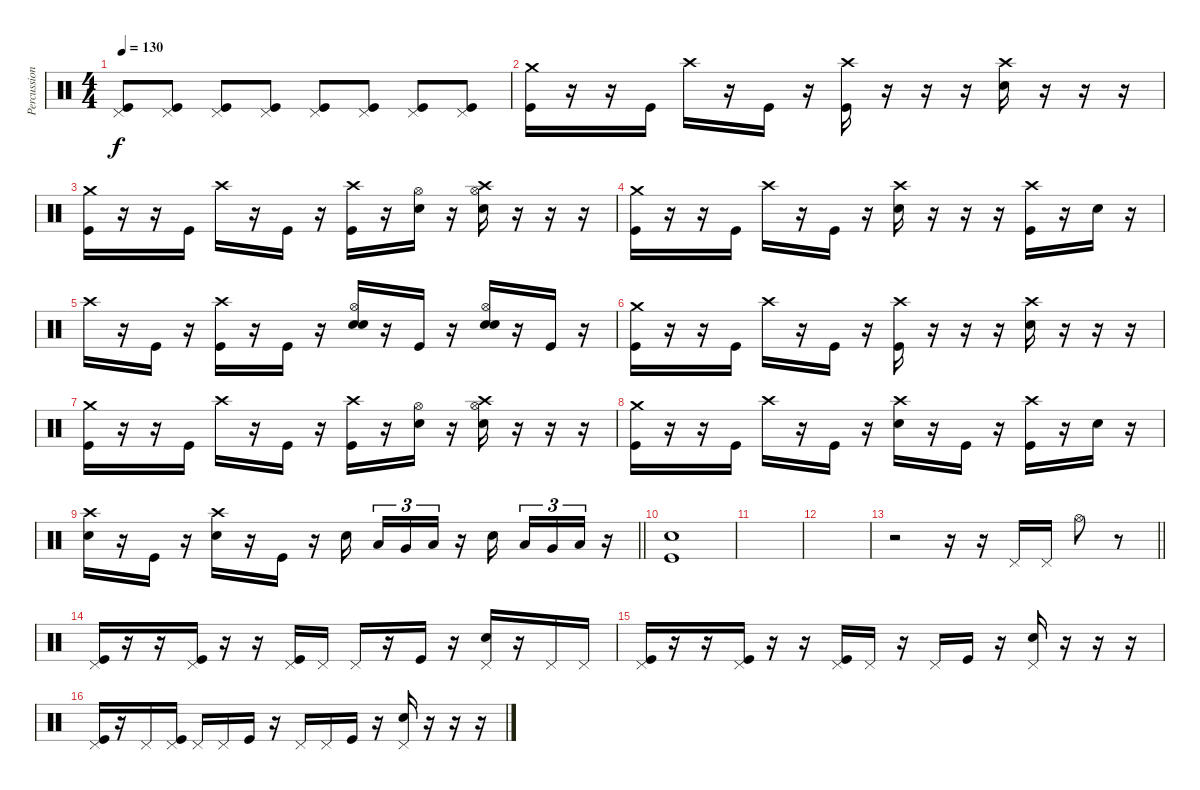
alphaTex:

\track ("Percussion" "Percussion") {instrument percussion}
\staff {score}
\articulation defaults
\ts (4 4)
\tempo 130
\clef neutral
\ks c
("Pedal Hi-Hat (hit)" "Kick (hit)").8{dy f} ("Pedal Hi-Hat (hit)" "Kick (hit)").8 ("Pedal Hi-Hat (hit)" "Kick (hit)").8 ("Pedal Hi-Hat (hit)" "Kick (hit)").8 ("Pedal Hi-Hat (hit)" "Kick (hit)").8 ("Pedal Hi-Hat (hit)" "Kick (hit)").8 ("Pedal Hi-Hat (hit)" "Kick (hit)").8 ("Pedal Hi-Hat (hit)" "Kick (hit)").8 |
("Crash medium (hit)" "Kick (hit)").16 r.16 r.16 "Kick (hit)".16 "Crash high (hit)".16 r.16 "Kick (hit)".16 r.16 ("Crash high (hit)" "Kick (hit)").16 r.16 r.16 r.16 ("Crash high (hit)" "Electric Snare (hit)").16 r.16 r.16 r.16 |
("Crash medium (hit)" "Kick (hit)").16 r.16 r.16 "Kick (hit)".16 "Crash high (hit)".16 r.16 "Kick (hit)".16 r.16 ("Crash high (hit)" "Kick (hit)").16 r.16 ("Hi-Hat (open)" "Electric Snare (hit)").16 r.16 ("Hi-Hat (open)" "Crash high (hit)" "Electric Snare (hit)").16 r.16 r.16 r.16 |
("Crash medium (hit)" "Kick (hit)").16 r.16 r.16 "Kick (hit)".16 "Crash high (hit)".16 r.16 "Kick (hit)".16 r.16 ("Crash high (hit)" "Electric Snare (hit)").16 r.16 r.16 r.16 ("Crash high (hit)" "Kick (hit)").16 r.16 "Electric Snare (hit)".16 r.16 |
"Crash high (hit)".16 r.16 "Kick (hit)".16 r.16 ("Crash high (hit)" "Kick (hit)").16 r.16 "Kick (hit)".16 r.16 ("Hi-Hat (open)" "Snare (hit) 2" "Electric Snare (hit)").16{bd 120} r.16 "Kick (hit)".16 r.16 ("Hi-Hat (open)" "Snare (hit) 2" "Electric Snare (hit)").16{bd 120} r.16 "Kick (hit)".16 r.16 |
("Crash medium (hit)" "Kick (hit)").16 r.16 r.16 "Kick (hit)".16 "Crash high (hit)".16 r.16 "Kick (hit)".16 r.16 ("Crash high (hit)" "Kick (hit)").16 r.16 r.16 r.16 ("Crash high (hit)" "Electric Snare (hit)").16 r.16 r.16 r.16 |
("Crash medium (hit)" "Kick (hit)").16 r.16 r.16 "Kick (hit)".16 "Crash high (hit)".16 r.16 "Kick (hit)".16 r.16 ("Crash high (hit)" "Kick (hit)").16 r.16 ("Hi-Hat (open)" "Electric Snare (hit)").16 r.16 ("Hi-Hat (open)" "Crash high (hit)" "Electric Snare (hit)").16 r.16 r.16 r.16 |
("Crash medium (hit)" "Kick (hit)").16 r.16 r.16 "Kick (hit)".16 "Crash high (hit)".16 r.16 "Kick (hit)".16 r.16 ("Crash high (hit)" "Electric Snare (hit)").16 r.16 "Kick (hit)".16 r.16 ("Crash high (hit)" "Kick (hit)").16 r.16 "Electric Snare (hit)".16 r.16 |
\barLineRight lightlight
("Crash high (hit)" "Electric Snare (hit)").16 r.16 "Kick (hit)".16 r.16 ("Crash high (hit)" "Electric Snare (hit)").16 r.16 "Kick (hit)".16 r.16 "Electric Snare (hit)".16{beam splitsecondary} "Low Tom (hit)".16{tu (3 2)} "Very Low Tom (hit)".16{tu (3 2)} "Low Floor Tom (hit)".16{tu (3 2)} r.16 "Electric Snare (hit)".16{beam splitsecondary} "Low Tom (hit)".16{tu (3 2)} "Very Low Tom (hit)".16{tu (3 2)} "Low Floor Tom (hit)".16{tu (3 2)} r.16 |
\section ("" "")
("Electric Snare (hit)" "Kick (hit)").1 |
|
|
\barLineRight lightlight
r.2 r.16 r.16 "Pedal Hi-Hat (hit)".16 "Pedal Hi-Hat (hit)".16 "Hi-Hat (open)".8 r.8 |
\section ("" "")
("Pedal Hi-Hat (hit)" "Kick (hit)").16 r.16 r.16 ("Pedal Hi-Hat (hit)" "Kick (hit)").16 r.16 r.16 ("Pedal Hi-Hat (hit)" "Kick (hit)").16 "Pedal Hi-Hat (hit)".16 "Pedal Hi-Hat (hit)".16 r.16 "Kick (hit)".16 r.16 ("Pedal Hi-Hat (hit)" "Electric Snare (hit)").16 r.16 "Pedal Hi-Hat (hit)".16 "Pedal Hi-Hat (hit)".16 |
("Pedal Hi-Hat (hit)" "Kick (hit)").16 r.16 r.16 ("Pedal Hi-Hat (hit)" "Kick (hit)").16 r.16 r.16 ("Pedal Hi-Hat (hit)" "Kick (hit)").16 "Pedal Hi-Hat (hit)".16 r.16 "Pedal Hi-Hat (hit)".16 "Kick (hit)".16 r.16 ("Pedal Hi-Hat (hit)" "Electric Snare (hit)").16 r.16 r.16 r.16 |
("Pedal Hi-Hat (hit)" "Kick (hit)").16 r.16 "Pedal Hi-Hat (hit)".16 ("Pedal Hi-Hat (hit)" "Kick (hit)").16 "Pedal Hi-Hat (hit)".16 "Pedal Hi-Hat (hit)".16 "Kick (hit)".16 r.16 "Pedal Hi-Hat (hit)".16 "Pedal Hi-Hat (hit)".16 "Kick (hit)".16 r.16 ("Pedal Hi-Hat (hit)" "Electric Snare (hit)").16 r.16 r.16 r.16
